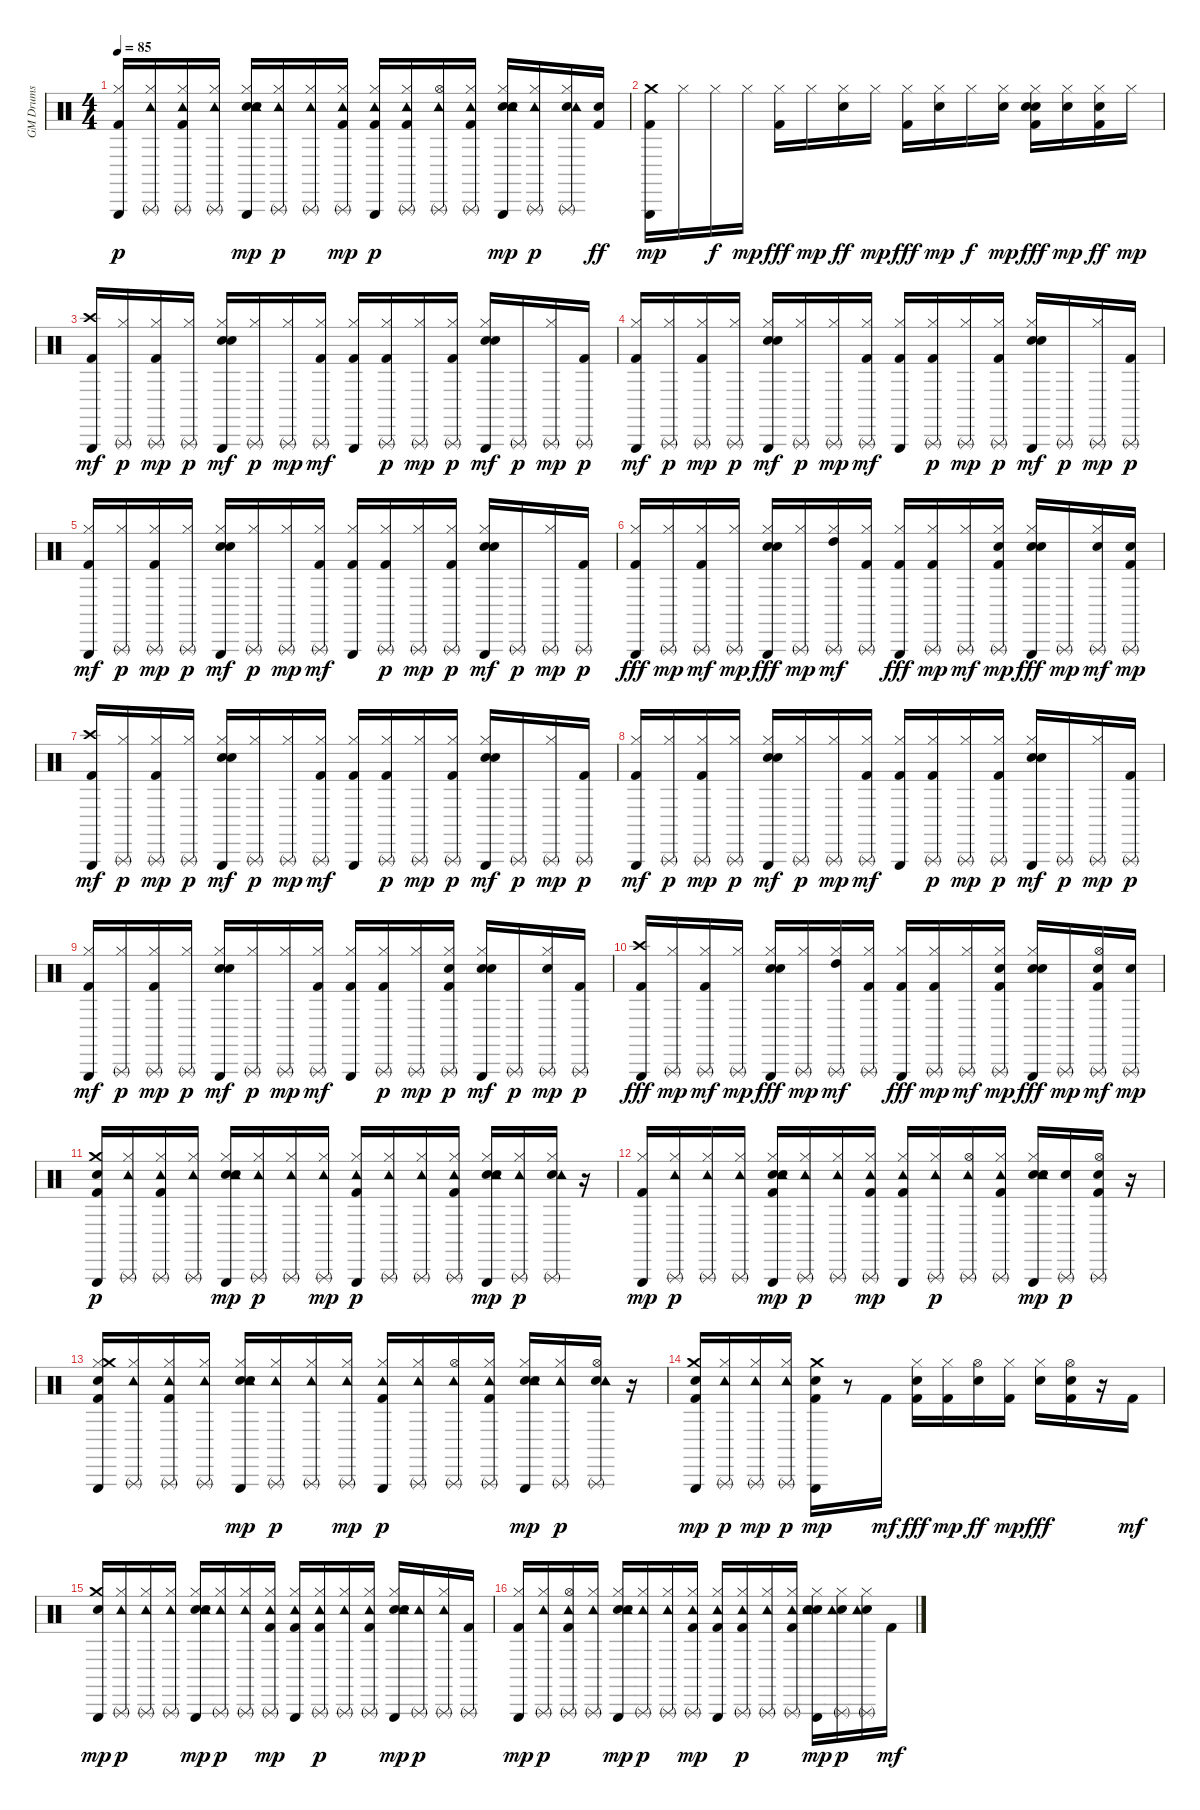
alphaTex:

\track ("GM Drums" "GM Drums") {instrument percussion}
\staff {score}
\articulation defaults
\ts (4 4)
\tempo 85
\clef neutral
\ks c
("Kick (hit) 2" "Hi-Hat (closed)" "Triangle (hit)").16{dy p} ("Hi-Hat (closed)" "Tambourine (hit)" "Triangle (rnute)").16 ("Kick (hit) 2" "Hi-Hat (closed)" "Tambourine (hit)" "Triangle (rnute)").16 ("Hi-Hat (closed)" "Tambourine (hit)" "Triangle (rnute)").16 ("Snare (hit) 2" "Hand Clap (hit)" "Hi-Hat (closed)" "Tambourine (hit)" "Triangle (hit)").16{dy mp} ("Hi-Hat (closed)" "Tambourine (hit)" "Triangle (rnute)").16{dy p} ("Hi-Hat (closed)" "Tambourine (hit)" "Triangle (rnute)").16 ("Kick (hit) 2" "Hi-Hat (closed)" "Tambourine (hit)" "Triangle (rnute)").16{dy mp} ("Kick (hit) 2" "Hi-Hat (closed)" "Tambourine (hit)" "Triangle (hit)").16{dy p} ("Kick (hit) 2" "Hi-Hat (closed)" "Tambourine (hit)" "Triangle (rnute)").16 ("Hi-Hat (open)" "Tambourine (hit)" "Triangle (rnute)").16 ("Kick (hit) 2" "Hi-Hat (closed)" "Tambourine (hit)" "Triangle (rnute)").16 ("Snare (hit) 2" "Hand Clap (hit)" "Hi-Hat (closed)" "Tambourine (hit)" "Triangle (hit)").16{dy mp} ("Hi-Hat (closed)" "Tambourine (hit)" "Triangle (rnute)").16{dy p} ("Snare (hit) 2" "Hi-Hat (closed)" "Tambourine (hit)" "Triangle (rnute)").16 ("Kick (hit) 2" "Snare (hit) 2").16{dy ff} |
("Kick (hit) 2" "Crash medium (hit)" "Triangle (hit)").16{dy mp} "Hi-Hat (closed)".16 "Hi-Hat (closed)".16{dy f} "Hi-Hat (closed)".16{dy mp} ("Kick (hit) 2" "Hi-Hat (closed)").16{dy fff} "Hi-Hat (closed)".16{dy mp} ("Snare (hit) 2" "Hi-Hat (closed)").16{dy ff} "Hi-Hat (closed)".16{dy mp} ("Kick (hit) 2" "Hi-Hat (closed)").16{dy fff} ("Snare (hit) 2" "Hi-Hat (closed)").16{dy mp} "Hi-Hat (closed)".16{dy f} ("Snare (hit) 2" "Hi-Hat (closed)").16{dy mp} ("Kick (hit) 2" "Snare (hit) 2" "Hand Clap (hit)" "Hi-Hat (closed)").16{dy fff} ("Snare (hit) 2" "Hi-Hat (closed)").16{dy mp} ("Kick (hit) 2" "Snare (hit) 2" "Hi-Hat (closed)").16{dy ff} "Hi-Hat (closed)".16{dy mp} |
("Kick (hit) 2" "Crash high (hit)" "Triangle (hit)").16{dy mf} ("Hi-Hat (closed)" "Triangle (rnute)").16{dy p} ("Kick (hit) 2" "Hi-Hat (closed)" "Triangle (rnute)").16{dy mp} ("Hi-Hat (closed)" "Triangle (rnute)").16{dy p} ("Snare (hit) 2" "Hand Clap (hit)" "Hi-Hat (closed)" "Triangle (hit)").16{dy mf} ("Hi-Hat (closed)" "Triangle (rnute)").16{dy p} ("Hi-Hat (closed)" "Triangle (rnute)").16{dy mp} ("Kick (hit) 2" "Hi-Hat (closed)" "Triangle (rnute)").16{dy mf} ("Kick (hit) 2" "Hi-Hat (closed)" "Triangle (hit)").16 ("Kick (hit) 2" "Hi-Hat (closed)" "Triangle (rnute)").16{dy p} ("Hi-Hat (closed)" "Triangle (rnute)").16{dy mp} ("Kick (hit) 2" "Hi-Hat (closed)" "Triangle (rnute)").16{dy p} ("Snare (hit) 2" "Hand Clap (hit)" "Hi-Hat (closed)" "Triangle (hit)").16{dy mf} "Triangle (rnute)".16{dy p} ("Hi-Hat (closed)" "Triangle (rnute)").16{dy mp} ("Kick (hit) 2" "Triangle (rnute)").16{dy p} |
("Kick (hit) 2" "Hi-Hat (closed)" "Triangle (hit)").16{dy mf} ("Hi-Hat (closed)" "Triangle (rnute)").16{dy p} ("Kick (hit) 2" "Hi-Hat (closed)" "Triangle (rnute)").16{dy mp} ("Hi-Hat (closed)" "Triangle (rnute)").16{dy p} ("Snare (hit) 2" "Hand Clap (hit)" "Hi-Hat (closed)" "Triangle (hit)").16{dy mf} ("Hi-Hat (closed)" "Triangle (rnute)").16{dy p} ("Hi-Hat (closed)" "Triangle (rnute)").16{dy mp} ("Kick (hit) 2" "Hi-Hat (closed)" "Triangle (rnute)").16{dy mf} ("Kick (hit) 2" "Hi-Hat (closed)" "Triangle (hit)").16 ("Kick (hit) 2" "Hi-Hat (closed)" "Triangle (rnute)").16{dy p} ("Hi-Hat (closed)" "Triangle (rnute)").16{dy mp} ("Kick (hit) 2" "Hi-Hat (closed)" "Triangle (rnute)").16{dy p} ("Snare (hit) 2" "Hand Clap (hit)" "Hi-Hat (closed)" "Triangle (hit)").16{dy mf} "Triangle (rnute)".16{dy p} ("Hi-Hat (closed)" "Triangle (rnute)").16{dy mp} ("Kick (hit) 2" "Triangle (rnute)").16{dy p} |
("Kick (hit) 2" "Hi-Hat (closed)" "Triangle (hit)").16{dy mf} ("Hi-Hat (closed)" "Triangle (rnute)").16{dy p} ("Kick (hit) 2" "Hi-Hat (closed)" "Triangle (rnute)").16{dy mp} ("Hi-Hat (closed)" "Triangle (rnute)").16{dy p} ("Snare (hit) 2" "Hand Clap (hit)" "Hi-Hat (closed)" "Triangle (hit)").16{dy mf} ("Hi-Hat (closed)" "Triangle (rnute)").16{dy p} ("Hi-Hat (closed)" "Triangle (rnute)").16{dy mp} ("Kick (hit) 2" "Hi-Hat (closed)" "Triangle (rnute)").16{dy mf} ("Kick (hit) 2" "Hi-Hat (closed)" "Triangle (hit)").16 ("Kick (hit) 2" "Hi-Hat (closed)" "Triangle (rnute)").16{dy p} ("Hi-Hat (closed)" "Triangle (rnute)").16{dy mp} ("Kick (hit) 2" "Hi-Hat (closed)" "Triangle (rnute)").16{dy p} ("Snare (hit) 2" "Hand Clap (hit)" "Hi-Hat (closed)" "Triangle (hit)").16{dy mf} "Triangle (rnute)".16{dy p} ("Hi-Hat (closed)" "Triangle (rnute)").16{dy mp} ("Kick (hit) 2" "Triangle (rnute)").16{dy p} |
("Kick (hit) 2" "Hi-Hat (closed)" "Triangle (hit)").16{dy fff} ("Hi-Hat (closed)" "Triangle (rnute)").16{dy mp} ("Kick (hit) 2" "Hi-Hat (closed)" "Triangle (rnute)").16{dy mf} ("Hi-Hat (closed)" "Triangle (rnute)").16{dy mp} ("Snare (hit) 2" "Hand Clap (hit)" "Hi-Hat (closed)" "Triangle (hit)").16{dy fff} ("Hi-Hat (closed)" "Triangle (rnute)").16{dy mp} ("Hi-Hat (closed)" "High Tom (hit)" "Triangle (rnute)").16{dy mf} ("Kick (hit) 2" "Hi-Hat (closed)" "Triangle (rnute)").16 ("Kick (hit) 2" "Hi-Hat (closed)" "Triangle (hit)").16{dy fff} ("Kick (hit) 2" "Hi-Hat (closed)" "Triangle (rnute)").16{dy mp} ("Hi-Hat (closed)" "Triangle (rnute)").16{dy mf} ("Kick (hit) 2" "Snare (hit) 2" "Hi-Hat (closed)" "Triangle (rnute)").16{dy mp} ("Snare (hit) 2" "Hand Clap (hit)" "Hi-Hat (closed)" "Triangle (hit)").16{dy fff} "Triangle (rnute)".16{dy mp} ("Snare (hit) 2" "Hi-Hat (closed)" "Triangle (rnute)").16{dy mf} ("Kick (hit) 2" "Snare (hit) 2" "Triangle (rnute)").16{dy mp} |
("Kick (hit) 2" "Crash high (hit)" "Triangle (hit)").16{dy mf} ("Hi-Hat (closed)" "Triangle (rnute)").16{dy p} ("Kick (hit) 2" "Hi-Hat (closed)" "Triangle (rnute)").16{dy mp} ("Hi-Hat (closed)" "Triangle (rnute)").16{dy p} ("Snare (hit) 2" "Hand Clap (hit)" "Hi-Hat (closed)" "Triangle (hit)").16{dy mf} ("Hi-Hat (closed)" "Triangle (rnute)").16{dy p} ("Hi-Hat (closed)" "Triangle (rnute)").16{dy mp} ("Kick (hit) 2" "Hi-Hat (closed)" "Triangle (rnute)").16{dy mf} ("Kick (hit) 2" "Hi-Hat (closed)" "Triangle (hit)").16 ("Kick (hit) 2" "Hi-Hat (closed)" "Triangle (rnute)").16{dy p} ("Hi-Hat (closed)" "Triangle (rnute)").16{dy mp} ("Kick (hit) 2" "Hi-Hat (closed)" "Triangle (rnute)").16{dy p} ("Snare (hit) 2" "Hand Clap (hit)" "Hi-Hat (closed)" "Triangle (hit)").16{dy mf} "Triangle (rnute)".16{dy p} ("Hi-Hat (closed)" "Triangle (rnute)").16{dy mp} ("Kick (hit) 2" "Triangle (rnute)").16{dy p} |
("Kick (hit) 2" "Hi-Hat (closed)" "Triangle (hit)").16{dy mf} ("Hi-Hat (closed)" "Triangle (rnute)").16{dy p} ("Kick (hit) 2" "Hi-Hat (closed)" "Triangle (rnute)").16{dy mp} ("Hi-Hat (closed)" "Triangle (rnute)").16{dy p} ("Snare (hit) 2" "Hand Clap (hit)" "Hi-Hat (closed)" "Triangle (hit)").16{dy mf} ("Hi-Hat (closed)" "Triangle (rnute)").16{dy p} ("Hi-Hat (closed)" "Triangle (rnute)").16{dy mp} ("Kick (hit) 2" "Hi-Hat (closed)" "Triangle (rnute)").16{dy mf} ("Kick (hit) 2" "Hi-Hat (closed)" "Triangle (hit)").16 ("Kick (hit) 2" "Hi-Hat (closed)" "Triangle (rnute)").16{dy p} ("Hi-Hat (closed)" "Triangle (rnute)").16{dy mp} ("Kick (hit) 2" "Hi-Hat (closed)" "Triangle (rnute)").16{dy p} ("Snare (hit) 2" "Hand Clap (hit)" "Hi-Hat (closed)" "Triangle (hit)").16{dy mf} "Triangle (rnute)".16{dy p} ("Hi-Hat (closed)" "Triangle (rnute)").16{dy mp} ("Kick (hit) 2" "Triangle (rnute)").16{dy p} |
("Kick (hit) 2" "Hi-Hat (closed)" "Triangle (hit)").16{dy mf} ("Hi-Hat (closed)" "Triangle (rnute)").16{dy p} ("Kick (hit) 2" "Hi-Hat (closed)" "Triangle (rnute)").16{dy mp} ("Hi-Hat (closed)" "Triangle (rnute)").16{dy p} ("Snare (hit) 2" "Hand Clap (hit)" "Hi-Hat (closed)" "Triangle (hit)").16{dy mf} ("Hi-Hat (closed)" "Triangle (rnute)").16{dy p} ("Hi-Hat (closed)" "Triangle (rnute)").16{dy mp} ("Kick (hit) 2" "Hi-Hat (closed)" "Triangle (rnute)").16{dy mf} ("Kick (hit) 2" "Hi-Hat (closed)" "Triangle (hit)").16 ("Kick (hit) 2" "Hi-Hat (closed)" "Triangle (rnute)").16{dy p} ("Hi-Hat (closed)" "Triangle (rnute)").16{dy mp} ("Kick (hit) 2" "Snare (hit) 2" "Hi-Hat (closed)" "Triangle (rnute)").16{dy p} ("Snare (hit) 2" "Hand Clap (hit)" "Hi-Hat (closed)" "Triangle (hit)").16{dy mf} "Triangle (rnute)".16{dy p} ("Snare (hit) 2" "Hi-Hat (closed)" "Triangle (rnute)").16{dy mp} ("Kick (hit) 2" "Triangle (rnute)").16{dy p} |
("Kick (hit) 2" "Crash high (hit)" "Triangle (hit)").16{dy fff} ("Hi-Hat (closed)" "Triangle (rnute)").16{dy mp} ("Kick (hit) 2" "Hi-Hat (closed)" "Triangle (rnute)").16{dy mf} ("Hi-Hat (closed)" "Triangle (rnute)").16{dy mp} ("Snare (hit) 2" "Hand Clap (hit)" "Hi-Hat (closed)" "Triangle (hit)").16{dy fff} ("Hi-Hat (closed)" "Triangle (rnute)").16{dy mp} ("Hi-Hat (closed)" "High Tom (hit)" "Triangle (rnute)").16{dy mf} ("Kick (hit) 2" "Hi-Hat (closed)" "Triangle (rnute)").16 ("Kick (hit) 2" "Hi-Hat (closed)" "Triangle (hit)").16{dy fff} ("Kick (hit) 2" "Hi-Hat (closed)" "Triangle (rnute)").16{dy mp} ("Hi-Hat (closed)" "Triangle (rnute)").16{dy mf} ("Kick (hit) 2" "Snare (hit) 2" "Hi-Hat (closed)" "Triangle (rnute)").16{dy mp} ("Snare (hit) 2" "Hand Clap (hit)" "Hi-Hat (closed)" "Triangle (hit)").16{dy fff} "Triangle (rnute)".16{dy mp} ("Kick (hit) 2" "Snare (hit) 2" "Hi-Hat (open)" "Triangle (rnute)").16{dy mf} ("Snare (hit) 2" "Triangle (rnute)").16{dy mp} |
("Kick (hit) 2" "Snare (hit) 2" "Crash medium (hit)" "Triangle (hit)").16{dy p} ("Hi-Hat (closed)" "Tambourine (hit)" "Triangle (rnute)").16 ("Kick (hit) 2" "Hi-Hat (closed)" "Tambourine (hit)" "Triangle (rnute)").16 ("Hi-Hat (closed)" "Tambourine (hit)" "Triangle (rnute)").16 ("Snare (hit) 2" "Hand Clap (hit)" "Hi-Hat (closed)" "Tambourine (hit)" "Triangle (hit)").16{dy mp} ("Hi-Hat (closed)" "Tambourine (hit)" "Triangle (rnute)").16{dy p} ("Hi-Hat (closed)" "Tambourine (hit)" "Triangle (rnute)").16 ("Hi-Hat (closed)" "Tambourine (hit)" "Triangle (rnute)").16{dy mp} ("Kick (hit) 2" "Hi-Hat (closed)" "Tambourine (hit)" "Triangle (hit)").16{dy p} ("Hi-Hat (closed)" "Tambourine (hit)" "Triangle (rnute)").16 ("Hi-Hat (closed)" "Tambourine (hit)" "Triangle (rnute)").16 ("Kick (hit) 2" "Hi-Hat (closed)" "Tambourine (hit)" "Triangle (rnute)").16 ("Snare (hit) 2" "Hand Clap (hit)" "Hi-Hat (closed)" "Tambourine (hit)" "Triangle (hit)").16{dy mp} ("Hi-Hat (closed)" "Tambourine (hit)" "Triangle (rnute)").16{dy p} ("Snare (hit) 2" "Hi-Hat (closed)" "Tambourine (hit)" "Triangle (rnute)").16 r.16 |
("Kick (hit) 2" "Hi-Hat (closed)" "Triangle (hit)").16{dy mp} ("Hi-Hat (closed)" "Tambourine (hit)" "Triangle (rnute)").16{dy p} ("Hi-Hat (closed)" "Tambourine (hit)" "Triangle (rnute)").16 ("Hi-Hat (closed)" "Tambourine (hit)" "Triangle (rnute)").16 ("Kick (hit) 2" "Snare (hit) 2" "Hand Clap (hit)" "Hi-Hat (closed)" "Tambourine (hit)" "Triangle (hit)").16{dy mp} ("Hi-Hat (closed)" "Tambourine (hit)" "Triangle (rnute)").16{dy p} ("Hi-Hat (closed)" "Tambourine (hit)" "Triangle (rnute)").16 ("Kick (hit) 2" "Hi-Hat (closed)" "Tambourine (hit)" "Triangle (rnute)").16{dy mp} ("Kick (hit) 2" "Hi-Hat (closed)" "Tambourine (hit)" "Triangle (hit)").16 ("Hi-Hat (closed)" "Tambourine (hit)" "Triangle (rnute)").16{dy p} ("Hi-Hat (open)" "Tambourine (hit)" "Triangle (rnute)").16 ("Kick (hit) 2" "Hi-Hat (closed)" "Tambourine (hit)" "Triangle (rnute)").16 ("Snare (hit) 2" "Hand Clap (hit)" "Hi-Hat (closed)" "Tambourine (hit)" "Triangle (hit)").16{dy mp} ("Snare (hit) 2" "Triangle (rnute)").16{dy p} ("Kick (hit) 2" "Snare (hit) 2" "Hi-Hat (open)" "Triangle (rnute)").16 r.16 |
("Kick (hit) 2" "Snare (hit) 2" "Hi-Hat (closed)" "Crash medium (hit)" "Triangle (hit)").16 ("Hi-Hat (closed)" "Tambourine (hit)" "Triangle (rnute)").16 ("Kick (hit) 2" "Hi-Hat (closed)" "Tambourine (hit)" "Triangle (rnute)").16 ("Hi-Hat (closed)" "Tambourine (hit)" "Triangle (rnute)").16 ("Snare (hit) 2" "Hand Clap (hit)" "Hi-Hat (closed)" "Tambourine (hit)" "Triangle (hit)").16{dy mp} ("Hi-Hat (closed)" "Tambourine (hit)" "Triangle (rnute)").16{dy p} ("Hi-Hat (closed)" "Tambourine (hit)" "Triangle (rnute)").16 ("Hi-Hat (closed)" "Tambourine (hit)" "Triangle (rnute)").16{dy mp} ("Kick (hit) 2" "Hi-Hat (closed)" "Tambourine (hit)" "Triangle (hit)").16{dy p} ("Hi-Hat (closed)" "Tambourine (hit)" "Triangle (rnute)").16 ("Hi-Hat (open)" "Tambourine (hit)" "Triangle (rnute)").16 ("Kick (hit) 2" "Hi-Hat (closed)" "Tambourine (hit)" "Triangle (rnute)").16 ("Snare (hit) 2" "Hand Clap (hit)" "Hi-Hat (closed)" "Tambourine (hit)" "Triangle (hit)").16{dy mp} ("Hi-Hat (closed)" "Tambourine (hit)" "Triangle (rnute)").16{dy p} ("Snare (hit) 2" "Hi-Hat (open)" "Tambourine (hit)" "Triangle (rnute)").16 r.16 |
("Kick (hit) 2" "Hand Clap (hit)" "Crash medium (hit)" "Triangle (hit)").16{dy mp} ("Hi-Hat (closed)" "Tambourine (hit)" "Triangle (rnute)").16{dy p} ("Hi-Hat (closed)" "Tambourine (hit)" "Triangle (rnute)").16{dy mp} ("Hi-Hat (closed)" "Tambourine (hit)" "Triangle (rnute)").16{dy p} ("Kick (hit) 2" "Hand Clap (hit)" "Crash medium (hit)" "Triangle (hit)").16{dy mp} r.8 "Kick (hit) 2".16{dy mf} ("Kick (hit) 2" "Snare (hit) 2" "Hi-Hat (closed)").16{dy fff} ("Kick (hit) 2" "Hi-Hat (closed)").16{dy mp} ("Snare (hit) 2" "Hi-Hat (open)").16{dy ff} ("Kick (hit) 2" "Hi-Hat (closed)").16{dy mp} ("Snare (hit) 2" "Hi-Hat (closed)").16{dy fff} ("Kick (hit) 2" "Snare (hit) 2" "Hi-Hat (open)").16 r.16 "Kick (hit) 2".16{dy mf} |
("Snare (hit) 2" "Crash medium (hit)" "Triangle (hit)").16{dy mp} ("Hi-Hat (closed)" "Tambourine (hit)" "Triangle (rnute)").16{dy p} ("Hi-Hat (closed)" "Tambourine (hit)" "Triangle (rnute)").16 ("Hi-Hat (closed)" "Tambourine (hit)" "Triangle (rnute)").16 ("Snare (hit) 2" "Hand Clap (hit)" "Hi-Hat (closed)" "Tambourine (hit)" "Triangle (hit)").16{dy mp} ("Hi-Hat (closed)" "Tambourine (hit)" "Triangle (rnute)").16{dy p} ("Hi-Hat (closed)" "Tambourine (hit)" "Triangle (rnute)").16 ("Kick (hit) 2" "Hi-Hat (closed)" "Tambourine (hit)" "Triangle (rnute)").16{dy mp} ("Kick (hit) 2" "Hi-Hat (closed)" "Tambourine (hit)" "Triangle (hit)").16 ("Kick (hit) 2" "Hi-Hat (closed)" "Tambourine (hit)" "Triangle (rnute)").16{dy p} ("Hi-Hat (closed)" "Tambourine (hit)" "Triangle (rnute)").16 ("Kick (hit) 2" "Hi-Hat (closed)" "Tambourine (hit)" "Triangle (rnute)").16 ("Snare (hit) 2" "Hand Clap (hit)" "Hi-Hat (closed)" "Tambourine (hit)" "Triangle (hit)").16{dy mp} ("Tambourine (hit)" "Triangle (rnute)").16{dy p} ("Hi-Hat (closed)" "Tambourine (hit)" "Triangle (rnute)").16 ("Kick (hit) 2" "Triangle (rnute)").16 |
("Kick (hit) 2" "Hi-Hat (closed)" "Triangle (hit)").16{dy mp} ("Hi-Hat (closed)" "Tambourine (hit)" "Triangle (rnute)").16{dy p} ("Kick (hit) 2" "Hi-Hat (open)" "Tambourine (hit)" "Triangle (rnute)").16 ("Hi-Hat (closed)" "Tambourine (hit)" "Triangle (rnute)").16 ("Snare (hit) 2" "Hand Clap (hit)" "Hi-Hat (closed)" "Tambourine (hit)" "Triangle (hit)").16{dy mp} ("Hi-Hat (closed)" "Tambourine (hit)" "Triangle (rnute)").16{dy p} ("Hi-Hat (closed)" "Tambourine (hit)" "Triangle (rnute)").16 ("Kick (hit) 2" "Hi-Hat (closed)" "Tambourine (hit)" "Triangle (rnute)").16{dy mp} ("Kick (hit) 2" "Hi-Hat (closed)" "Tambourine (hit)" "Triangle (hit)").16 ("Kick (hit) 2" "Hi-Hat (closed)" "Tambourine (hit)" "Triangle (rnute)").16{dy p} ("Hi-Hat (closed)" "Tambourine (hit)" "Triangle (rnute)").16 ("Kick (hit) 2" "Hi-Hat (closed)" "Tambourine (hit)" "Triangle (rnute)").16 ("Snare (hit) 2" "Hand Clap (hit)" "Hi-Hat (closed)" "Tambourine (hit)" "Triangle (hit)").16{dy mp} ("Snare (hit) 2" "Hi-Hat (closed)" "Tambourine (hit)" "Triangle (rnute)").16{dy p} ("Snare (hit) 2" "Hi-Hat (closed)" "Tambourine (hit)" "Triangle (rnute)").16 "Kick (hit) 2".16{dy mf}
